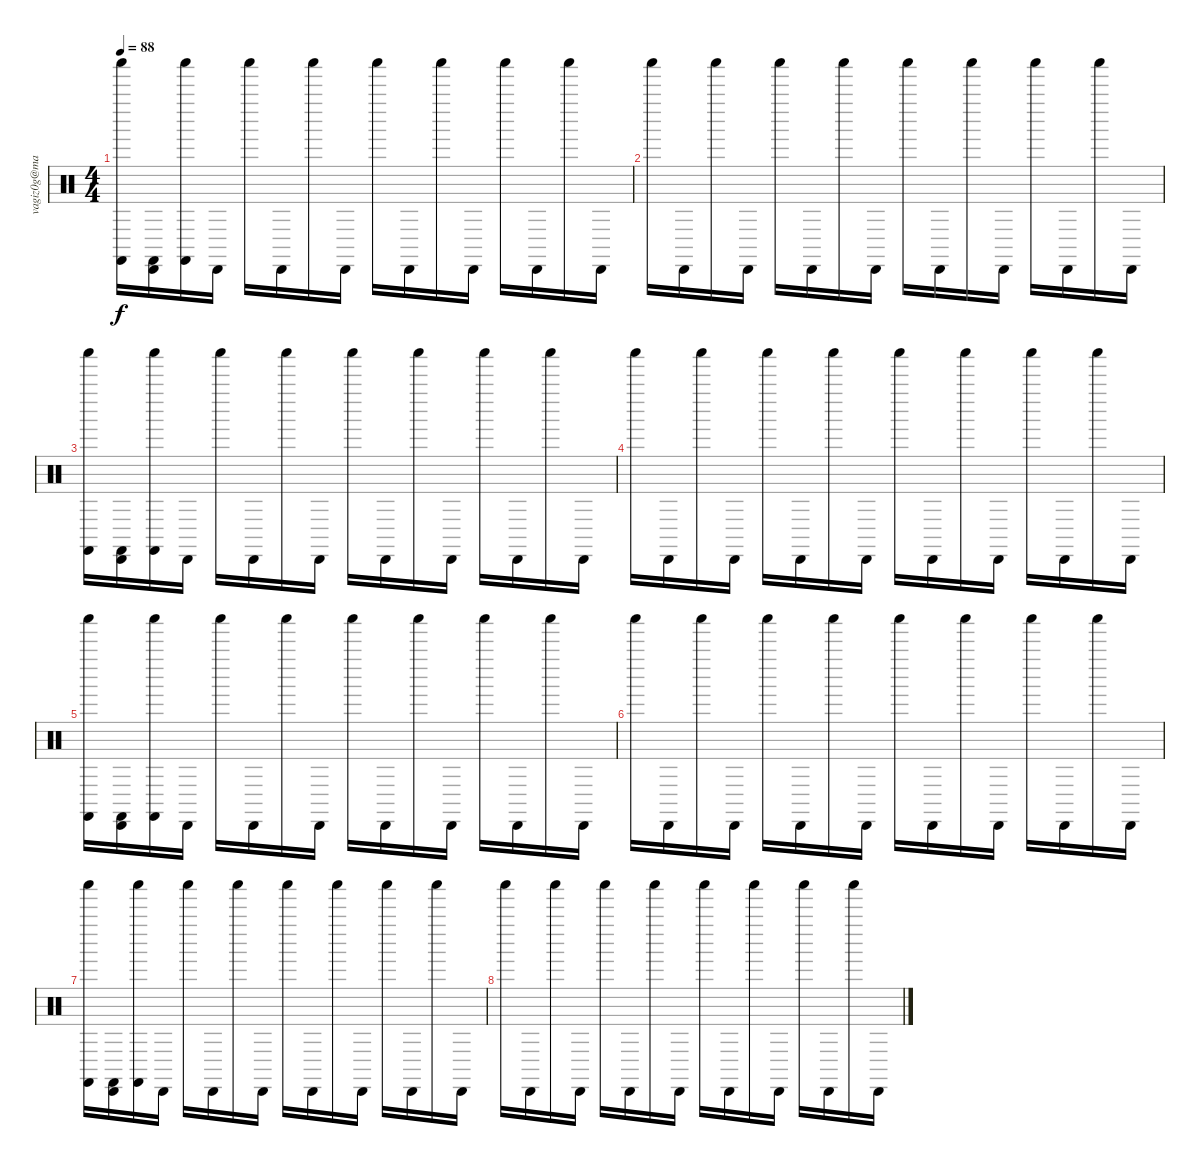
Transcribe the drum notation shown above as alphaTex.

\track ("vagiz0g@mail.ru" "vagiz0g@ma") {solo instrument percussion}
\staff {score}
\articulation defaults
\ts (4 4)
\tempo 88
\clef neutral
\ks c
("Shaker (hit)" "Castanets (hit)").16{dy f} ("Cabasa (hit)" "Castanets (hit)").16 ("Shaker (hit)" "Castanets (hit)").16 "Cabasa (hit)".16 "Shaker (hit)".16 "Cabasa (hit)".16 "Shaker (hit)".16 "Cabasa (hit)".16 "Shaker (hit)".16 "Cabasa (hit)".16 "Shaker (hit)".16 "Cabasa (hit)".16 "Shaker (hit)".16 "Cabasa (hit)".16 "Shaker (hit)".16 "Cabasa (hit)".16 |
"Shaker (hit)".16 "Cabasa (hit)".16 "Shaker (hit)".16 "Cabasa (hit)".16 "Shaker (hit)".16 "Cabasa (hit)".16 "Shaker (hit)".16 "Cabasa (hit)".16 "Shaker (hit)".16 "Cabasa (hit)".16 "Shaker (hit)".16 "Cabasa (hit)".16 "Shaker (hit)".16 "Cabasa (hit)".16 "Shaker (hit)".16 "Cabasa (hit)".16 |
("Shaker (hit)" "Castanets (hit)").16 ("Cabasa (hit)" "Castanets (hit)").16 ("Shaker (hit)" "Castanets (hit)").16 "Cabasa (hit)".16 "Shaker (hit)".16 "Cabasa (hit)".16 "Shaker (hit)".16 "Cabasa (hit)".16 "Shaker (hit)".16 "Cabasa (hit)".16 "Shaker (hit)".16 "Cabasa (hit)".16 "Shaker (hit)".16 "Cabasa (hit)".16 "Shaker (hit)".16 "Cabasa (hit)".16 |
"Shaker (hit)".16 "Cabasa (hit)".16 "Shaker (hit)".16 "Cabasa (hit)".16 "Shaker (hit)".16 "Cabasa (hit)".16 "Shaker (hit)".16 "Cabasa (hit)".16 "Shaker (hit)".16 "Cabasa (hit)".16 "Shaker (hit)".16 "Cabasa (hit)".16 "Shaker (hit)".16 "Cabasa (hit)".16 "Shaker (hit)".16 "Cabasa (hit)".16 |
("Shaker (hit)" "Castanets (hit)").16 ("Cabasa (hit)" "Castanets (hit)").16 ("Shaker (hit)" "Castanets (hit)").16 "Cabasa (hit)".16 "Shaker (hit)".16 "Cabasa (hit)".16 "Shaker (hit)".16 "Cabasa (hit)".16 "Shaker (hit)".16 "Cabasa (hit)".16 "Shaker (hit)".16 "Cabasa (hit)".16 "Shaker (hit)".16 "Cabasa (hit)".16 "Shaker (hit)".16 "Cabasa (hit)".16 |
"Shaker (hit)".16 "Cabasa (hit)".16 "Shaker (hit)".16 "Cabasa (hit)".16 "Shaker (hit)".16 "Cabasa (hit)".16 "Shaker (hit)".16 "Cabasa (hit)".16 "Shaker (hit)".16 "Cabasa (hit)".16 "Shaker (hit)".16 "Cabasa (hit)".16 "Shaker (hit)".16 "Cabasa (hit)".16 "Shaker (hit)".16 "Cabasa (hit)".16 |
("Shaker (hit)" "Castanets (hit)").16 ("Cabasa (hit)" "Castanets (hit)").16 ("Shaker (hit)" "Castanets (hit)").16 "Cabasa (hit)".16 "Shaker (hit)".16 "Cabasa (hit)".16 "Shaker (hit)".16 "Cabasa (hit)".16 "Shaker (hit)".16 "Cabasa (hit)".16 "Shaker (hit)".16 "Cabasa (hit)".16 "Shaker (hit)".16 "Cabasa (hit)".16 "Shaker (hit)".16 "Cabasa (hit)".16 |
"Shaker (hit)".16 "Cabasa (hit)".16 "Shaker (hit)".16 "Cabasa (hit)".16 "Shaker (hit)".16 "Cabasa (hit)".16 "Shaker (hit)".16 "Cabasa (hit)".16 "Shaker (hit)".16 "Cabasa (hit)".16 "Shaker (hit)".16 "Cabasa (hit)".16 "Shaker (hit)".16 "Cabasa (hit)".16 "Shaker (hit)".16 "Cabasa (hit)".16
